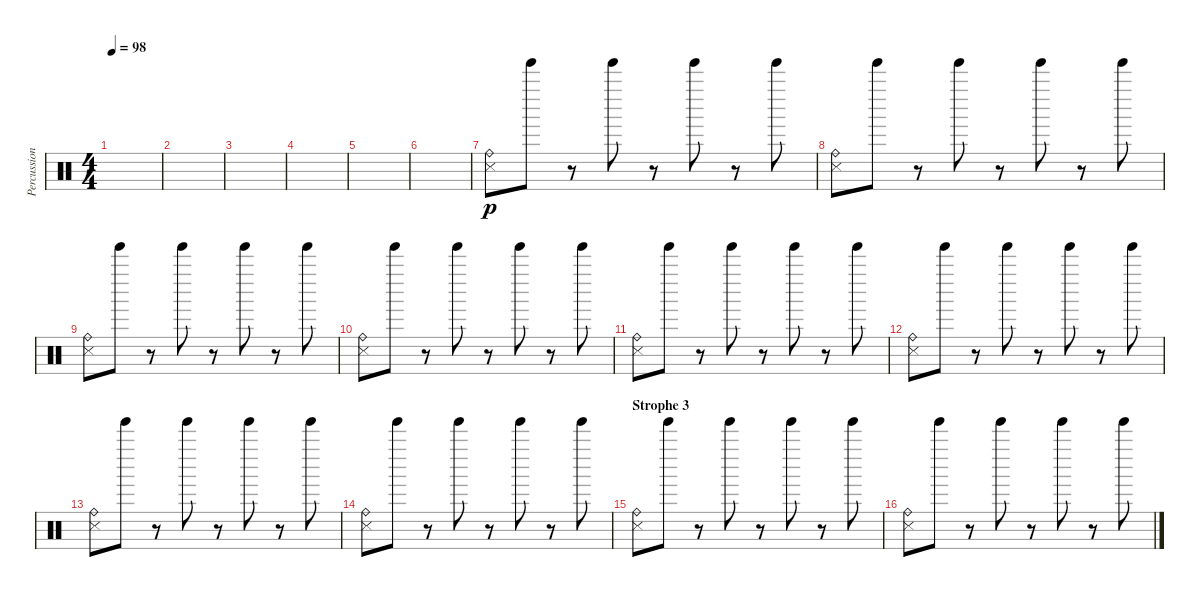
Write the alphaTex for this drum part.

\track ("Percussion" "Percussion") {instrument percussion}
\staff {score}
\articulation defaults
\ts (4 4)
\tempo 98
\clef neutral
\ks c
|
|
|
|
|
|
("Metronome (hit)" "Ride (bell)").8{dy p} "Tinkle Bell (hit)".8 r.8 "Tinkle Bell (hit)".8 r.8 "Tinkle Bell (hit)".8 r.8 "Tinkle Bell (hit)".8 |
("Metronome (hit)" "Ride (bell)").8 "Tinkle Bell (hit)".8 r.8 "Tinkle Bell (hit)".8 r.8 "Tinkle Bell (hit)".8 r.8 "Tinkle Bell (hit)".8 |
("Metronome (hit)" "Ride (bell)").8 "Tinkle Bell (hit)".8 r.8 "Tinkle Bell (hit)".8 r.8 "Tinkle Bell (hit)".8 r.8 "Tinkle Bell (hit)".8 |
("Metronome (hit)" "Ride (bell)").8 "Tinkle Bell (hit)".8 r.8 "Tinkle Bell (hit)".8 r.8 "Tinkle Bell (hit)".8 r.8 "Tinkle Bell (hit)".8 |
("Metronome (hit)" "Ride (bell)").8 "Tinkle Bell (hit)".8 r.8 "Tinkle Bell (hit)".8 r.8 "Tinkle Bell (hit)".8 r.8 "Tinkle Bell (hit)".8 |
("Metronome (hit)" "Ride (bell)").8 "Tinkle Bell (hit)".8 r.8 "Tinkle Bell (hit)".8 r.8 "Tinkle Bell (hit)".8 r.8 "Tinkle Bell (hit)".8 |
("Metronome (hit)" "Ride (bell)").8 "Tinkle Bell (hit)".8 r.8 "Tinkle Bell (hit)".8 r.8 "Tinkle Bell (hit)".8 r.8 "Tinkle Bell (hit)".8 |
("Metronome (hit)" "Ride (bell)").8 "Tinkle Bell (hit)".8 r.8 "Tinkle Bell (hit)".8 r.8 "Tinkle Bell (hit)".8 r.8 "Tinkle Bell (hit)".8 |
\section ("" "Strophe 3")
("Metronome (hit)" "Ride (bell)").8 "Tinkle Bell (hit)".8 r.8 "Tinkle Bell (hit)".8 r.8 "Tinkle Bell (hit)".8 r.8 "Tinkle Bell (hit)".8 |
("Metronome (hit)" "Ride (bell)").8 "Tinkle Bell (hit)".8 r.8 "Tinkle Bell (hit)".8 r.8 "Tinkle Bell (hit)".8 r.8 "Tinkle Bell (hit)".8
